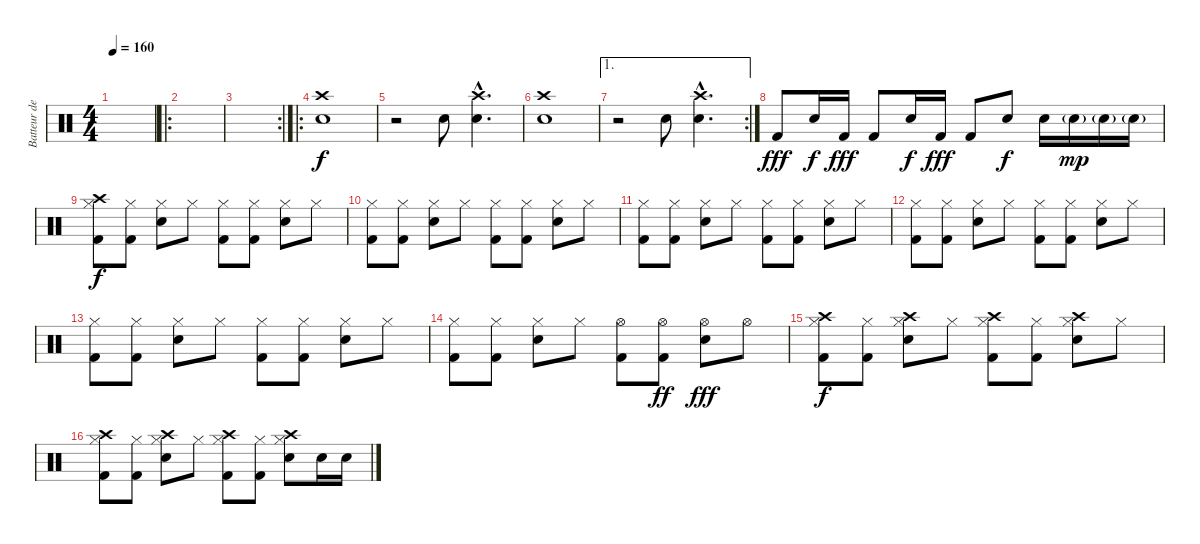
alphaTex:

\track ("Batteur de G.C" "Batteur de") {instrument percussion}
\staff {score}
\articulation defaults
\ts (4 4)
\tempo 160
\clef neutral
\ks c
|
\ro
|
\rc 2
|
\ro
("Crash high (hit)" "Electric Snare (hit)").1 |
r.2 "Electric Snare (hit)".8 ("Crash high (hit)"{hac} "Electric Snare (hit)"{hac}).4{d} |
("Crash high (hit)" "Electric Snare (hit)").1 |
\ae 1
\rc 2
r.2 "Electric Snare (hit)".8 ("Crash high (hit)"{hac} "Electric Snare (hit)"{hac}).4{d} |
"Kick (hit) 2".8{dy fff} "Electric Snare (hit)".16{dy f} "Kick (hit) 2".16{dy fff} "Kick (hit) 2".8 "Electric Snare (hit)".16{dy f} "Kick (hit) 2".16{dy fff} "Kick (hit) 2".8 "Electric Snare (hit)".8{dy f} "Electric Snare (hit)".16 "Electric Snare (hit)"{g}.16{dy mp} "Electric Snare (hit)"{g}.16 "Electric Snare (hit)"{g}.16 |
("Crash high (hit)" "Hi-Hat (closed)" "Kick (hit) 2").8{dy f} ("Hi-Hat (closed)" "Kick (hit) 2").8 ("Hi-Hat (closed)" "Electric Snare (hit)").8 "Hi-Hat (closed)".8 ("Hi-Hat (closed)" "Kick (hit) 2").8 ("Hi-Hat (closed)" "Kick (hit) 2").8 ("Hi-Hat (closed)" "Electric Snare (hit)").8 "Hi-Hat (closed)".8 |
("Hi-Hat (closed)" "Kick (hit) 2").8 ("Hi-Hat (closed)" "Kick (hit) 2").8 ("Hi-Hat (closed)" "Electric Snare (hit)").8 "Hi-Hat (closed)".8 ("Hi-Hat (closed)" "Kick (hit) 2").8 ("Hi-Hat (closed)" "Kick (hit) 2").8 ("Hi-Hat (closed)" "Electric Snare (hit)").8 "Hi-Hat (closed)".8 |
("Hi-Hat (closed)" "Kick (hit) 2").8 ("Hi-Hat (closed)" "Kick (hit) 2").8 ("Hi-Hat (closed)" "Electric Snare (hit)").8 "Hi-Hat (closed)".8 ("Hi-Hat (closed)" "Kick (hit) 2").8 ("Hi-Hat (closed)" "Kick (hit) 2").8 ("Hi-Hat (closed)" "Electric Snare (hit)").8 "Hi-Hat (closed)".8 |
("Hi-Hat (closed)" "Kick (hit) 2").8 ("Hi-Hat (closed)" "Kick (hit) 2").8 ("Hi-Hat (closed)" "Electric Snare (hit)").8 "Hi-Hat (closed)".8 ("Hi-Hat (closed)" "Kick (hit) 2").8 ("Hi-Hat (closed)" "Kick (hit) 2").8 ("Hi-Hat (closed)" "Electric Snare (hit)").8 "Hi-Hat (closed)".8 |
("Hi-Hat (closed)" "Kick (hit) 2").8 ("Hi-Hat (closed)" "Kick (hit) 2").8 ("Hi-Hat (closed)" "Electric Snare (hit)").8 "Hi-Hat (closed)".8 ("Hi-Hat (closed)" "Kick (hit) 2").8 ("Hi-Hat (closed)" "Kick (hit) 2").8 ("Hi-Hat (closed)" "Electric Snare (hit)").8 "Hi-Hat (closed)".8 |
("Hi-Hat (closed)" "Kick (hit) 2").8 ("Hi-Hat (closed)" "Kick (hit) 2").8 ("Hi-Hat (closed)" "Electric Snare (hit)").8 "Hi-Hat (closed)".8 ("Hi-Hat (open)" "Kick (hit) 2").8 ("Hi-Hat (open)" "Kick (hit) 2").8{dy ff} ("Hi-Hat (open)" "Electric Snare (hit)").8{dy fff} "Hi-Hat (open)".8 |
("Crash high (hit)" "Hi-Hat (closed)" "Kick (hit) 2").8{dy f} ("Hi-Hat (closed)" "Kick (hit) 2").8 ("Crash high (hit)" "Hi-Hat (closed)" "Electric Snare (hit)").8 "Hi-Hat (closed)".8 ("Crash high (hit)" "Hi-Hat (closed)" "Kick (hit) 2").8 ("Hi-Hat (closed)" "Kick (hit) 2").8 ("Crash high (hit)" "Hi-Hat (closed)" "Electric Snare (hit)").8 "Hi-Hat (closed)".8 |
("Crash high (hit)" "Hi-Hat (closed)" "Kick (hit) 2").8 ("Hi-Hat (closed)" "Kick (hit) 2").8 ("Crash high (hit)" "Hi-Hat (closed)" "Electric Snare (hit)").8 "Hi-Hat (closed)".8 ("Crash high (hit)" "Hi-Hat (closed)" "Kick (hit) 2").8 ("Hi-Hat (closed)" "Kick (hit) 2").8 ("Crash high (hit)" "Hi-Hat (closed)" "Electric Snare (hit)").8 "Electric Snare (hit)".16 "Electric Snare (hit)".16
